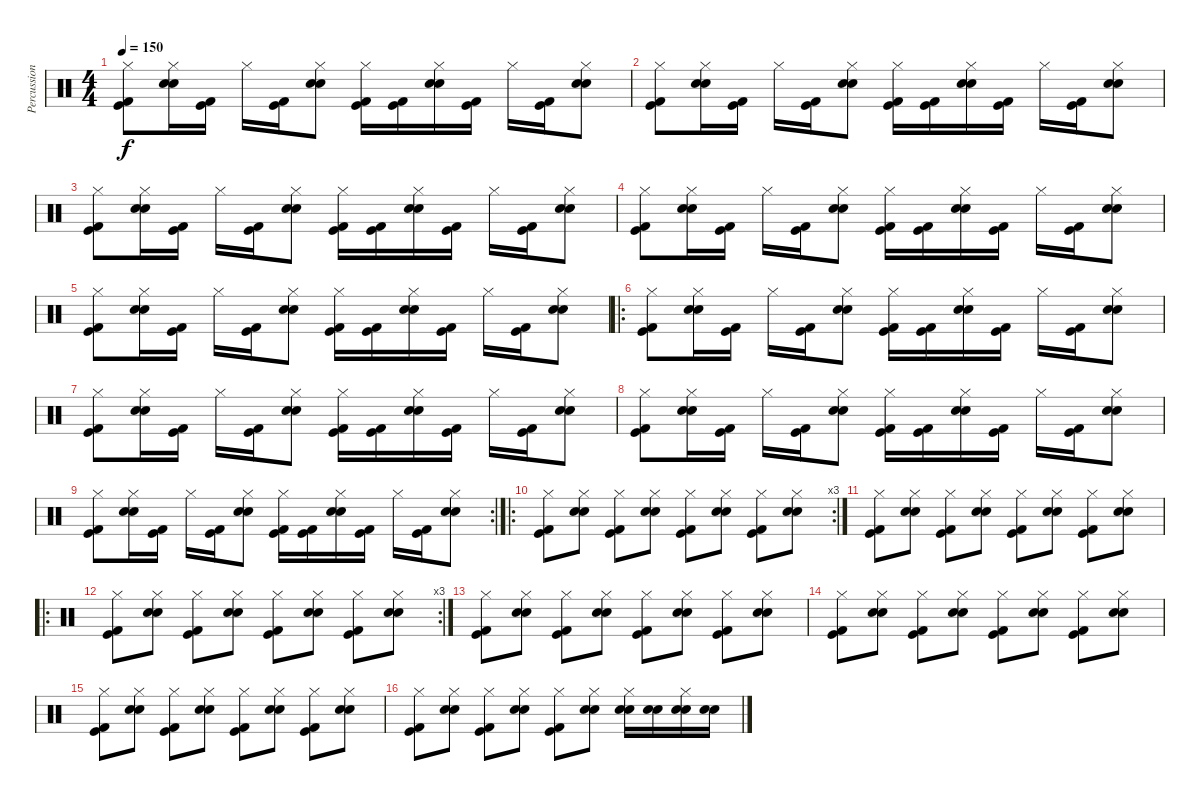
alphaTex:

\track ("Percussions" "Percussion") {instrument percussion}
\staff {score}
\articulation defaults
\ts (4 4)
\tempo 150
\clef neutral
\ks c
("Hi-Hat (closed)" "Kick (hit)" "Kick (hit) 2").8{dy f} ("Hi-Hat (closed)" "Snare (hit) 2" "Electric Snare (hit)").16 ("Kick (hit)" "Kick (hit) 2").16 "Hi-Hat (closed)".16 ("Kick (hit)" "Kick (hit) 2").16 ("Hi-Hat (closed)" "Snare (hit) 2" "Electric Snare (hit)").8 ("Hi-Hat (closed)" "Kick (hit)" "Kick (hit) 2").16 ("Kick (hit)" "Kick (hit) 2").16 ("Hi-Hat (closed)" "Snare (hit) 2" "Electric Snare (hit)").16 ("Kick (hit)" "Kick (hit) 2").16 "Hi-Hat (closed)".16 ("Kick (hit)" "Kick (hit) 2").16 ("Hi-Hat (closed)" "Snare (hit) 2" "Electric Snare (hit)").8 |
("Hi-Hat (closed)" "Kick (hit)" "Kick (hit) 2").8 ("Hi-Hat (closed)" "Snare (hit) 2" "Electric Snare (hit)").16 ("Kick (hit)" "Kick (hit) 2").16 "Hi-Hat (closed)".16 ("Kick (hit)" "Kick (hit) 2").16 ("Hi-Hat (closed)" "Snare (hit) 2" "Electric Snare (hit)").8 ("Hi-Hat (closed)" "Kick (hit)" "Kick (hit) 2").16 ("Kick (hit)" "Kick (hit) 2").16 ("Hi-Hat (closed)" "Snare (hit) 2" "Electric Snare (hit)").16 ("Kick (hit)" "Kick (hit) 2").16 "Hi-Hat (closed)".16 ("Kick (hit)" "Kick (hit) 2").16 ("Hi-Hat (closed)" "Snare (hit) 2" "Electric Snare (hit)").8 |
("Hi-Hat (closed)" "Kick (hit)" "Kick (hit) 2").8 ("Hi-Hat (closed)" "Snare (hit) 2" "Electric Snare (hit)").16 ("Kick (hit)" "Kick (hit) 2").16 "Hi-Hat (closed)".16 ("Kick (hit)" "Kick (hit) 2").16 ("Hi-Hat (closed)" "Snare (hit) 2" "Electric Snare (hit)").8 ("Hi-Hat (closed)" "Kick (hit)" "Kick (hit) 2").16 ("Kick (hit)" "Kick (hit) 2").16 ("Hi-Hat (closed)" "Snare (hit) 2" "Electric Snare (hit)").16 ("Kick (hit)" "Kick (hit) 2").16 "Hi-Hat (closed)".16 ("Kick (hit)" "Kick (hit) 2").16 ("Hi-Hat (closed)" "Snare (hit) 2" "Electric Snare (hit)").8 |
("Hi-Hat (closed)" "Kick (hit)" "Kick (hit) 2").8 ("Hi-Hat (closed)" "Snare (hit) 2" "Electric Snare (hit)").16 ("Kick (hit)" "Kick (hit) 2").16 "Hi-Hat (closed)".16 ("Kick (hit)" "Kick (hit) 2").16 ("Hi-Hat (closed)" "Snare (hit) 2" "Electric Snare (hit)").8 ("Hi-Hat (closed)" "Kick (hit)" "Kick (hit) 2").16 ("Kick (hit)" "Kick (hit) 2").16 ("Hi-Hat (closed)" "Snare (hit) 2" "Electric Snare (hit)").16 ("Kick (hit)" "Kick (hit) 2").16 "Hi-Hat (closed)".16 ("Kick (hit)" "Kick (hit) 2").16 ("Hi-Hat (closed)" "Snare (hit) 2" "Electric Snare (hit)").8 |
("Hi-Hat (closed)" "Kick (hit)" "Kick (hit) 2").8 ("Hi-Hat (closed)" "Snare (hit) 2" "Electric Snare (hit)").16 ("Kick (hit)" "Kick (hit) 2").16 "Hi-Hat (closed)".16 ("Kick (hit)" "Kick (hit) 2").16 ("Hi-Hat (closed)" "Snare (hit) 2" "Electric Snare (hit)").8 ("Hi-Hat (closed)" "Kick (hit)" "Kick (hit) 2").16 ("Kick (hit)" "Kick (hit) 2").16 ("Hi-Hat (closed)" "Snare (hit) 2" "Electric Snare (hit)").16 ("Kick (hit)" "Kick (hit) 2").16 "Hi-Hat (closed)".16 ("Kick (hit)" "Kick (hit) 2").16 ("Hi-Hat (closed)" "Snare (hit) 2" "Electric Snare (hit)").8 |
\ro
("Hi-Hat (closed)" "Kick (hit)" "Kick (hit) 2").8 ("Hi-Hat (closed)" "Snare (hit) 2" "Electric Snare (hit)").16 ("Kick (hit)" "Kick (hit) 2").16 "Hi-Hat (closed)".16 ("Kick (hit)" "Kick (hit) 2").16 ("Hi-Hat (closed)" "Snare (hit) 2" "Electric Snare (hit)").8 ("Hi-Hat (closed)" "Kick (hit)" "Kick (hit) 2").16 ("Kick (hit)" "Kick (hit) 2").16 ("Hi-Hat (closed)" "Snare (hit) 2" "Electric Snare (hit)").16 ("Kick (hit)" "Kick (hit) 2").16 "Hi-Hat (closed)".16 ("Kick (hit)" "Kick (hit) 2").16 ("Hi-Hat (closed)" "Snare (hit) 2" "Electric Snare (hit)").8 |
("Hi-Hat (closed)" "Kick (hit)" "Kick (hit) 2").8 ("Hi-Hat (closed)" "Snare (hit) 2" "Electric Snare (hit)").16 ("Kick (hit)" "Kick (hit) 2").16 "Hi-Hat (closed)".16 ("Kick (hit)" "Kick (hit) 2").16 ("Hi-Hat (closed)" "Snare (hit) 2" "Electric Snare (hit)").8 ("Hi-Hat (closed)" "Kick (hit)" "Kick (hit) 2").16 ("Kick (hit)" "Kick (hit) 2").16 ("Hi-Hat (closed)" "Snare (hit) 2" "Electric Snare (hit)").16 ("Kick (hit)" "Kick (hit) 2").16 "Hi-Hat (closed)".16 ("Kick (hit)" "Kick (hit) 2").16 ("Hi-Hat (closed)" "Snare (hit) 2" "Electric Snare (hit)").8 |
("Hi-Hat (closed)" "Kick (hit)" "Kick (hit) 2").8 ("Hi-Hat (closed)" "Snare (hit) 2" "Electric Snare (hit)").16 ("Kick (hit)" "Kick (hit) 2").16 "Hi-Hat (closed)".16 ("Kick (hit)" "Kick (hit) 2").16 ("Hi-Hat (closed)" "Snare (hit) 2" "Electric Snare (hit)").8 ("Hi-Hat (closed)" "Kick (hit)" "Kick (hit) 2").16 ("Kick (hit)" "Kick (hit) 2").16 ("Hi-Hat (closed)" "Snare (hit) 2" "Electric Snare (hit)").16 ("Kick (hit)" "Kick (hit) 2").16 "Hi-Hat (closed)".16 ("Kick (hit)" "Kick (hit) 2").16 ("Hi-Hat (closed)" "Snare (hit) 2" "Electric Snare (hit)").8 |
\rc 2
("Hi-Hat (closed)" "Kick (hit)" "Kick (hit) 2").8 ("Hi-Hat (closed)" "Snare (hit) 2" "Electric Snare (hit)").16 ("Kick (hit)" "Kick (hit) 2").16 "Hi-Hat (closed)".16 ("Kick (hit)" "Kick (hit) 2").16 ("Hi-Hat (closed)" "Snare (hit) 2" "Electric Snare (hit)").8 ("Hi-Hat (closed)" "Kick (hit)" "Kick (hit) 2").16 ("Kick (hit)" "Kick (hit) 2").16 ("Hi-Hat (closed)" "Snare (hit) 2" "Electric Snare (hit)").16 ("Kick (hit)" "Kick (hit) 2").16 "Hi-Hat (closed)".16 ("Kick (hit)" "Kick (hit) 2").16 ("Hi-Hat (closed)" "Snare (hit) 2" "Electric Snare (hit)").8 |
\ro
\rc 3
("Hi-Hat (closed)" "Kick (hit)" "Kick (hit) 2").8 ("Hi-Hat (closed)" "Snare (hit) 2" "Electric Snare (hit)").8 ("Hi-Hat (closed)" "Kick (hit)" "Kick (hit) 2").8 ("Hi-Hat (closed)" "Snare (hit) 2" "Electric Snare (hit)").8 ("Hi-Hat (closed)" "Kick (hit)" "Kick (hit) 2").8 ("Hi-Hat (closed)" "Snare (hit) 2" "Electric Snare (hit)").8 ("Hi-Hat (closed)" "Kick (hit)" "Kick (hit) 2").8 ("Hi-Hat (closed)" "Snare (hit) 2" "Electric Snare (hit)").8 |
("Hi-Hat (closed)" "Kick (hit)" "Kick (hit) 2").8 ("Hi-Hat (closed)" "Snare (hit) 2" "Electric Snare (hit)").8 ("Hi-Hat (closed)" "Kick (hit)" "Kick (hit) 2").8 ("Hi-Hat (closed)" "Snare (hit) 2" "Electric Snare (hit)").8 ("Hi-Hat (closed)" "Kick (hit)" "Kick (hit) 2").8 ("Hi-Hat (closed)" "Snare (hit) 2" "Electric Snare (hit)").8 ("Hi-Hat (closed)" "Kick (hit)" "Kick (hit) 2").8 ("Hi-Hat (closed)" "Snare (hit) 2" "Electric Snare (hit)").8 |
\ro
\rc 3
("Hi-Hat (closed)" "Kick (hit)" "Kick (hit) 2").8 ("Hi-Hat (closed)" "Snare (hit) 2" "Electric Snare (hit)").8 ("Hi-Hat (closed)" "Kick (hit)" "Kick (hit) 2").8 ("Hi-Hat (closed)" "Snare (hit) 2" "Electric Snare (hit)").8 ("Hi-Hat (closed)" "Kick (hit)" "Kick (hit) 2").8 ("Hi-Hat (closed)" "Snare (hit) 2" "Electric Snare (hit)").8 ("Hi-Hat (closed)" "Kick (hit)" "Kick (hit) 2").8 ("Hi-Hat (closed)" "Snare (hit) 2" "Electric Snare (hit)").8 |
("Hi-Hat (closed)" "Kick (hit)" "Kick (hit) 2").8 ("Hi-Hat (closed)" "Snare (hit) 2" "Electric Snare (hit)").8 ("Hi-Hat (closed)" "Kick (hit)" "Kick (hit) 2").8 ("Hi-Hat (closed)" "Snare (hit) 2" "Electric Snare (hit)").8 ("Hi-Hat (closed)" "Kick (hit)" "Kick (hit) 2").8 ("Hi-Hat (closed)" "Snare (hit) 2" "Electric Snare (hit)").8 ("Hi-Hat (closed)" "Kick (hit)" "Kick (hit) 2").8 ("Hi-Hat (closed)" "Snare (hit) 2" "Electric Snare (hit)").8 |
("Hi-Hat (closed)" "Kick (hit)" "Kick (hit) 2").8 ("Hi-Hat (closed)" "Snare (hit) 2" "Electric Snare (hit)").8 ("Hi-Hat (closed)" "Kick (hit)" "Kick (hit) 2").8 ("Hi-Hat (closed)" "Snare (hit) 2" "Electric Snare (hit)").8 ("Hi-Hat (closed)" "Kick (hit)" "Kick (hit) 2").8 ("Hi-Hat (closed)" "Snare (hit) 2" "Electric Snare (hit)").8 ("Hi-Hat (closed)" "Kick (hit)" "Kick (hit) 2").8 ("Hi-Hat (closed)" "Snare (hit) 2" "Electric Snare (hit)").8 |
("Hi-Hat (closed)" "Kick (hit)" "Kick (hit) 2").8 ("Hi-Hat (closed)" "Snare (hit) 2" "Electric Snare (hit)").8 ("Hi-Hat (closed)" "Kick (hit)" "Kick (hit) 2").8 ("Hi-Hat (closed)" "Snare (hit) 2" "Electric Snare (hit)").8 ("Hi-Hat (closed)" "Kick (hit)" "Kick (hit) 2").8 ("Hi-Hat (closed)" "Snare (hit) 2" "Electric Snare (hit)").8 ("Hi-Hat (closed)" "Kick (hit)" "Kick (hit) 2").8 ("Hi-Hat (closed)" "Snare (hit) 2" "Electric Snare (hit)").8 |
("Hi-Hat (closed)" "Kick (hit)" "Kick (hit) 2").8 ("Hi-Hat (closed)" "Snare (hit) 2" "Electric Snare (hit)").8 ("Hi-Hat (closed)" "Kick (hit)" "Kick (hit) 2").8 ("Hi-Hat (closed)" "Snare (hit) 2" "Electric Snare (hit)").8 ("Hi-Hat (closed)" "Kick (hit)" "Kick (hit) 2").8 ("Hi-Hat (closed)" "Snare (hit) 2" "Electric Snare (hit)").8 ("Hi-Hat (closed)" "Snare (hit) 2" "Electric Snare (hit)").16 ("Snare (hit) 2" "Electric Snare (hit)").16 ("Hi-Hat (closed)" "Snare (hit) 2" "Electric Snare (hit)").16 ("Snare (hit) 2" "Electric Snare (hit)").16
